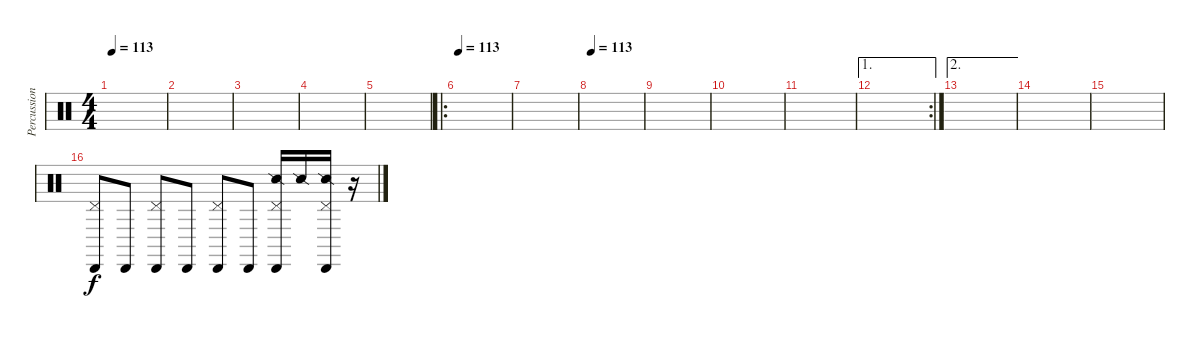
\track ("Percussion" "Percussion") {instrument percussion}
\staff {score}
\articulation defaults
\ts (4 4)
\tempo 113
\clef neutral
\ks c
|
|
|
|
|
\ro
\tempo 113
|
|
\tempo 113
|
|
|
|
\ae 1
\rc 2
|
\ae 2
|
|
|
("Cabasa (hit)" "Pedal Hi-Hat (hit)").8 "Cabasa (hit)".8 ("Cabasa (hit)" "Pedal Hi-Hat (hit)").8 "Cabasa (hit)".8 ("Cabasa (hit)" "Pedal Hi-Hat (hit)").8 "Cabasa (hit)".8 ("Cabasa (hit)" "Snare (side stick) 2" "Pedal Hi-Hat (hit)").16 "Snare (side stick) 2".16 ("Cabasa (hit)" "Snare (side stick) 2" "Pedal Hi-Hat (hit)").16 r.16
